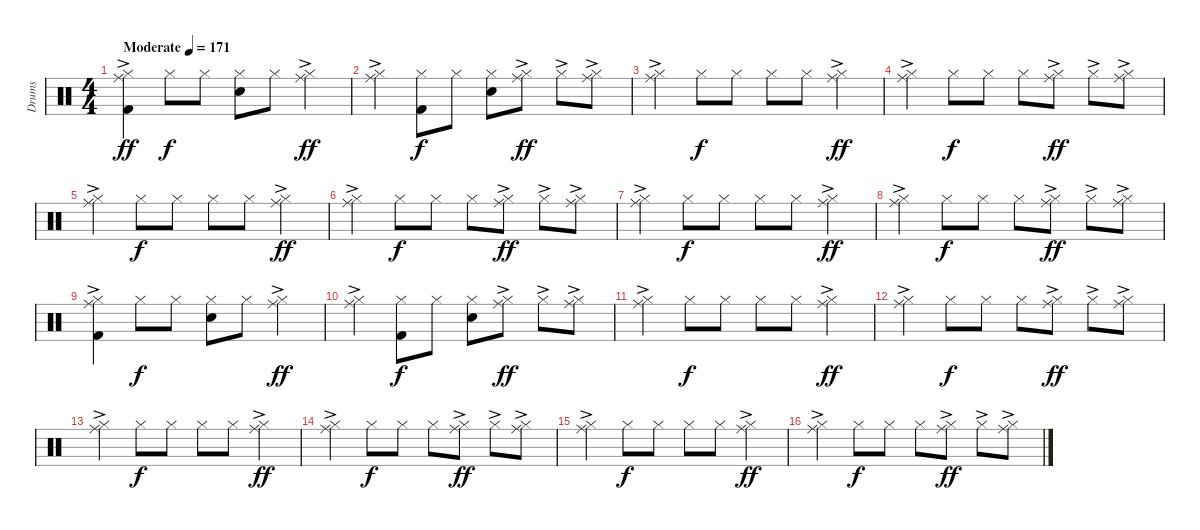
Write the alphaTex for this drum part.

\track ("Drums" "Drums") {instrument percussion}
\staff {score}
\articulation defaults
\ts (4 4)
\tempo (171 "Moderate")
\clef neutral
\ks c
("Hi-Hat (closed)"{ac} "Ride (middle)" "Kick (hit) 2").4{dy ff} "Hi-Hat (closed)".8{dy f} "Hi-Hat (closed)".8 ("Hi-Hat (closed)" "Snare (hit) 2").8 "Hi-Hat (closed)".8 ("Hi-Hat (closed)"{ac} "Ride (middle)").4{dy ff} |
("Hi-Hat (closed)"{ac} "Ride (middle)").4 ("Hi-Hat (closed)" "Kick (hit) 2").8{dy f} "Hi-Hat (closed)".8 ("Hi-Hat (closed)" "Snare (hit) 2").8 ("Hi-Hat (closed)"{ac} "Ride (middle)").8{dy ff} "Hi-Hat (closed)"{ac}.8 ("Hi-Hat (closed)"{ac} "Ride (middle)").8 |
("Hi-Hat (closed)"{ac} "Ride (middle)").4 "Hi-Hat (closed)".8{dy f} "Hi-Hat (closed)".8 "Hi-Hat (closed)".8 "Hi-Hat (closed)".8 ("Hi-Hat (closed)"{ac} "Ride (middle)").4{dy ff} |
("Hi-Hat (closed)"{ac} "Ride (middle)").4 "Hi-Hat (closed)".8{dy f} "Hi-Hat (closed)".8 "Hi-Hat (closed)".8 ("Hi-Hat (closed)"{ac} "Ride (middle)").8{dy ff} "Hi-Hat (closed)"{ac}.8 ("Hi-Hat (closed)"{ac} "Ride (middle)").8 |
("Hi-Hat (closed)"{ac} "Ride (middle)").4 "Hi-Hat (closed)".8{dy f} "Hi-Hat (closed)".8 "Hi-Hat (closed)".8 "Hi-Hat (closed)".8 ("Hi-Hat (closed)"{ac} "Ride (middle)").4{dy ff} |
("Hi-Hat (closed)"{ac} "Ride (middle)").4 "Hi-Hat (closed)".8{dy f} "Hi-Hat (closed)".8 "Hi-Hat (closed)".8 ("Hi-Hat (closed)"{ac} "Ride (middle)").8{dy ff} "Hi-Hat (closed)"{ac}.8 ("Hi-Hat (closed)"{ac} "Ride (middle)").8 |
("Hi-Hat (closed)"{ac} "Ride (middle)").4 "Hi-Hat (closed)".8{dy f} "Hi-Hat (closed)".8 "Hi-Hat (closed)".8 "Hi-Hat (closed)".8 ("Hi-Hat (closed)"{ac} "Ride (middle)").4{dy ff} |
("Hi-Hat (closed)"{ac} "Ride (middle)").4 "Hi-Hat (closed)".8{dy f} "Hi-Hat (closed)".8 "Hi-Hat (closed)".8 ("Hi-Hat (closed)"{ac} "Ride (middle)").8{dy ff} "Hi-Hat (closed)"{ac}.8 ("Hi-Hat (closed)"{ac} "Ride (middle)").8 |
("Hi-Hat (closed)"{ac} "Ride (middle)" "Kick (hit) 2").4 "Hi-Hat (closed)".8{dy f} "Hi-Hat (closed)".8 ("Hi-Hat (closed)" "Snare (hit) 2").8 "Hi-Hat (closed)".8 ("Hi-Hat (closed)"{ac} "Ride (middle)").4{dy ff} |
("Hi-Hat (closed)"{ac} "Ride (middle)").4 ("Hi-Hat (closed)" "Kick (hit) 2").8{dy f} "Hi-Hat (closed)".8 ("Hi-Hat (closed)" "Snare (hit) 2").8 ("Hi-Hat (closed)"{ac} "Ride (middle)").8{dy ff} "Hi-Hat (closed)"{ac}.8 ("Hi-Hat (closed)"{ac} "Ride (middle)").8 |
("Hi-Hat (closed)"{ac} "Ride (middle)").4 "Hi-Hat (closed)".8{dy f} "Hi-Hat (closed)".8 "Hi-Hat (closed)".8 "Hi-Hat (closed)".8 ("Hi-Hat (closed)"{ac} "Ride (middle)").4{dy ff} |
("Hi-Hat (closed)"{ac} "Ride (middle)").4 "Hi-Hat (closed)".8{dy f} "Hi-Hat (closed)".8 "Hi-Hat (closed)".8 ("Hi-Hat (closed)"{ac} "Ride (middle)").8{dy ff} "Hi-Hat (closed)"{ac}.8 ("Hi-Hat (closed)"{ac} "Ride (middle)").8 |
("Hi-Hat (closed)"{ac} "Ride (middle)").4 "Hi-Hat (closed)".8{dy f} "Hi-Hat (closed)".8 "Hi-Hat (closed)".8 "Hi-Hat (closed)".8 ("Hi-Hat (closed)"{ac} "Ride (middle)").4{dy ff} |
("Hi-Hat (closed)"{ac} "Ride (middle)").4 "Hi-Hat (closed)".8{dy f} "Hi-Hat (closed)".8 "Hi-Hat (closed)".8 ("Hi-Hat (closed)"{ac} "Ride (middle)").8{dy ff} "Hi-Hat (closed)"{ac}.8 ("Hi-Hat (closed)"{ac} "Ride (middle)").8 |
("Hi-Hat (closed)"{ac} "Ride (middle)").4 "Hi-Hat (closed)".8{dy f} "Hi-Hat (closed)".8 "Hi-Hat (closed)".8 "Hi-Hat (closed)".8 ("Hi-Hat (closed)"{ac} "Ride (middle)").4{dy ff} |
("Hi-Hat (closed)"{ac} "Ride (middle)").4 "Hi-Hat (closed)".8{dy f} "Hi-Hat (closed)".8 "Hi-Hat (closed)".8 ("Hi-Hat (closed)"{ac} "Ride (middle)").8{dy ff} "Hi-Hat (closed)"{ac}.8 ("Hi-Hat (closed)"{ac} "Ride (middle)").8
